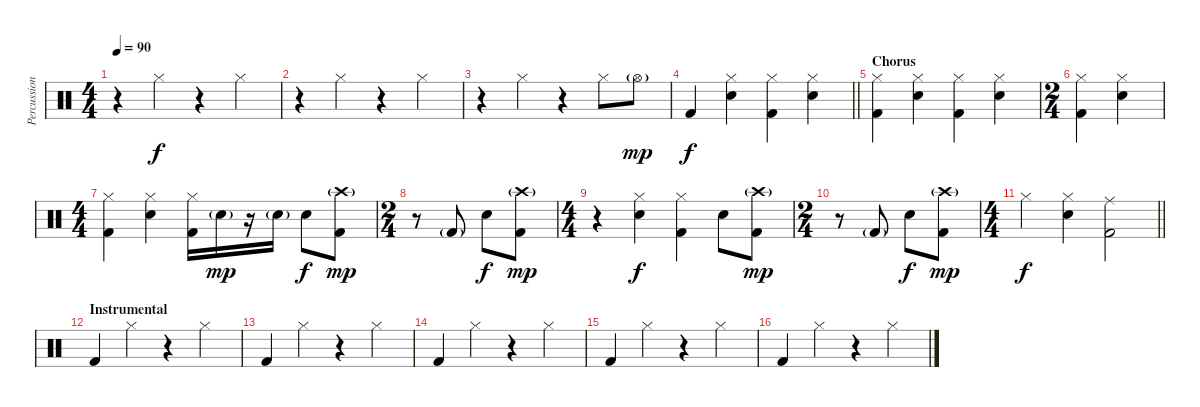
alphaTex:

\track ("Percussion" "Percussion") {instrument percussion}
\staff {score}
\articulation defaults
\ts (4 4)
\tempo 90
\clef neutral
\ks c
r.4{dy f} "Hi-Hat (closed)".4 r.4 "Hi-Hat (closed)".4 |
r.4 "Hi-Hat (closed)".4 r.4 "Hi-Hat (closed)".4 |
r.4 "Hi-Hat (closed)".4 r.4 "Hi-Hat (closed)".8 "Hi-Hat (open)"{g}.8{dy mp} |
\barLineRight lightlight "Kick (hit) 2".4{dy f volume 6}
("Hi-Hat (closed)" "Snare (hit) 2").4 ("Hi-Hat (closed)" "Kick (hit) 2").4 ("Hi-Hat (closed)" "Snare (hit) 2").4 |
\section ("" "Chorus")
("Hi-Hat (closed)" "Kick (hit) 2").4 ("Hi-Hat (closed)" "Snare (hit) 2").4 ("Hi-Hat (closed)" "Kick (hit) 2").4 ("Hi-Hat (closed)" "Snare (hit) 2").4 |
\ts (2 4)
("Hi-Hat (closed)" "Kick (hit) 2").4 ("Hi-Hat (closed)" "Snare (hit) 2").4 |
\ts (4 4)
("Hi-Hat (closed)" "Kick (hit) 2").4 ("Hi-Hat (closed)" "Snare (hit) 2").4 ("Hi-Hat (closed)" "Kick (hit) 2").16 "Snare (hit) 2"{g}.16{dy mp} r.16 "Snare (hit) 2"{g}.16 "Snare (hit) 2".8{dy f} ("Crash high (hit)"{g} "Kick (hit) 2").8{dy mp} |
\ts (2 4)
r.8 "Kick (hit) 2"{g}.8 "Snare (hit) 2".8{dy f} ("Crash high (hit)"{g} "Kick (hit) 2").8{dy mp} |
\ts (4 4)
r.4 ("Hi-Hat (closed)" "Snare (hit) 2").4{dy f} ("Hi-Hat (closed)" "Kick (hit) 2").4 "Snare (hit) 2".8 ("Crash high (hit)"{g} "Kick (hit) 2").8{dy mp} |
\ts (2 4)
r.8 "Kick (hit) 2"{g}.8 "Snare (hit) 2".8{dy f} ("Crash high (hit)"{g} "Kick (hit) 2").8{dy mp} |
\ts (4 4)
\barLineRight lightlight "Hi-Hat (closed)".4{dy f}
("Hi-Hat (closed)" "Snare (hit) 2").4 ("Ride (middle)" "Kick (hit) 2").2 |
\section ("" "Instrumental")
"Kick (hit) 2".4 "Hi-Hat (closed)".4{volume 13} r.4 "Hi-Hat (closed)".4 |
"Kick (hit) 2".4{volume 6} "Hi-Hat (closed)".4{volume 13} r.4 "Hi-Hat (closed)".4 |
"Kick (hit) 2".4{volume 6} "Hi-Hat (closed)".4{volume 13} r.4 "Hi-Hat (closed)".4 |
"Kick (hit) 2".4{volume 6} "Hi-Hat (closed)".4{volume 13} r.4 "Hi-Hat (closed)".4 |
"Kick (hit) 2".4{volume 6} "Hi-Hat (closed)".4{volume 13} r.4 "Hi-Hat (closed)".4
